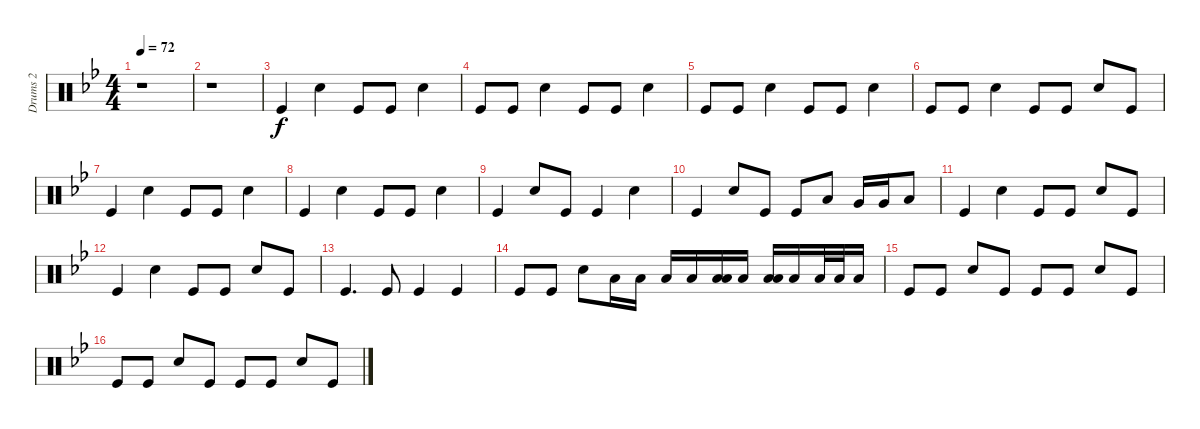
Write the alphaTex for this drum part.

\track ("Drums 2" "Drums 2") {instrument percussion}
\staff {score}
\articulation defaults
\ts (4 4)
\tempo 72
\clef neutral
\ks bb
r.1{dy f} |
r.1 |
"Kick (hit)".4 "Snare (hit) 2".4 "Kick (hit)".8 "Kick (hit)".8 "Snare (hit) 2".4 |
"Kick (hit)".8 "Kick (hit)".8 "Snare (hit) 2".4 "Kick (hit)".8 "Kick (hit)".8 "Snare (hit) 2".4 |
"Kick (hit)".8 "Kick (hit)".8 "Snare (hit) 2".4 "Kick (hit)".8 "Kick (hit)".8 "Snare (hit) 2".4 |
"Kick (hit)".8 "Kick (hit)".8 "Snare (hit) 2".4 "Kick (hit)".8 "Kick (hit)".8 "Snare (hit) 2".8 "Kick (hit)".8 |
"Kick (hit)".4 "Snare (hit) 2".4 "Kick (hit)".8 "Kick (hit)".8 "Snare (hit) 2".4 |
"Kick (hit)".4 "Snare (hit) 2".4 "Kick (hit)".8 "Kick (hit)".8 "Snare (hit) 2".4 |
"Kick (hit)".4 "Snare (hit) 2".8 "Kick (hit)".8 "Kick (hit)".4 "Snare (hit) 2".4 |
"Kick (hit)".4 "Snare (hit) 2".8 "Kick (hit)".8 "Kick (hit)".8 "Low Tom (hit)".8 "Very Low Tom (hit)".16 "Very Low Tom (hit)".16 "Low Floor Tom (hit)".8 |
"Kick (hit)".4 "Snare (hit) 2".4 "Kick (hit)".8 "Kick (hit)".8 "Snare (hit) 2".8 "Kick (hit)".8 |
"Kick (hit)".4 "Snare (hit) 2".4 "Kick (hit)".8 "Kick (hit)".8 "Snare (hit) 2".8 "Kick (hit)".8 |
"Kick (hit)".4{d} "Kick (hit)".8 "Kick (hit)".4 "Kick (hit)".4 |
"Kick (hit)".8 "Kick (hit)".8 "Snare (hit) 2".8 "Low Tom (hit)".16 "Low Tom (hit)".16 "Low Tom (hit)".16 "Low Tom (hit)".16 ("Low Tom (hit)" "Low Tom (hit)").16 "Low Tom (hit)".16 ("Low Tom (hit)" "Low Tom (hit)").16 "Low Tom (hit)".16 "Low Tom (hit)".32 "Low Tom (hit)".32 "Low Tom (hit)".16 |
"Kick (hit)".8 "Kick (hit)".8 "Snare (hit) 2".8 "Kick (hit)".8 "Kick (hit)".8 "Kick (hit)".8 "Snare (hit) 2".8 "Kick (hit)".8 |
"Kick (hit)".8 "Kick (hit)".8 "Snare (hit) 2".8 "Kick (hit)".8 "Kick (hit)".8 "Kick (hit)".8 "Snare (hit) 2".8 "Kick (hit)".8
